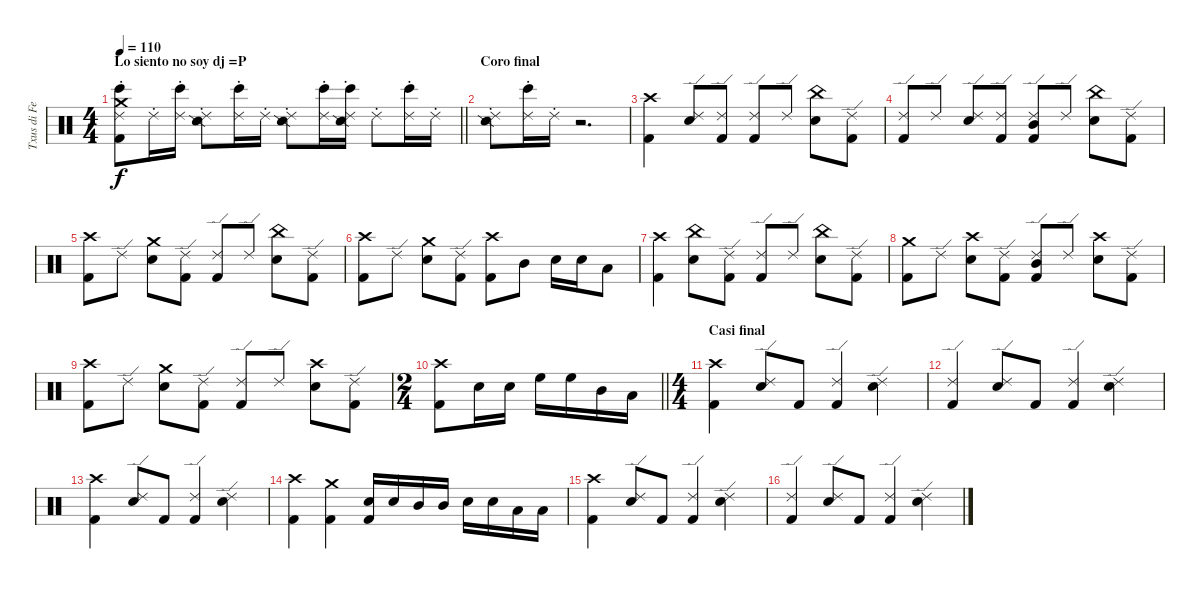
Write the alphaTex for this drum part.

\track ("Txus di Fellatio" "Txus di Fe") {instrument percussion}
\staff {score}
\articulation defaults
\ts (4 4)
\section ("" "Lo siento no soy dj =P")
\tempo 110
\clef neutral
\barLineRight lightlight
\ks c
("Ride (choke) 2" "Bongo High (hit)" "Crash medium (hit)" "Kick (hit) 2").8{dy f} "Ride (choke) 2".16 ("Ride (choke) 2" "Bongo High (hit)").16 ("Ride (choke) 2" "Snare (side stick) 2").8 ("Ride (choke) 2" "Bongo High (hit)").16 "Ride (choke) 2".16 ("Ride (choke) 2" "Snare (side stick) 2").8 ("Ride (choke) 2" "Bongo High (hit)").16 ("Ride (choke) 2" "Bongo High (hit)" "Snare (side stick) 2").16 "Ride (choke) 2".8 ("Ride (choke) 2" "Bongo High (hit)").16 "Ride (choke) 2".16 |
\section ("" "Coro final")
("Ride (choke) 2" "Snare (side stick) 2").8 ("Ride (choke) 2" "Bongo High (hit)").16 "Ride (choke) 2".16 r.2{d} |
("Kick (hit) 2" "Crash high (hit)").4 ("Ride (edge) 2" "Electric Snare (hit)").8 ("Kick (hit) 2" "Ride (edge) 2").8 ("Kick (hit) 2" "Ride (edge) 2").8 "Ride (edge) 2".8 ("China (hit)" "Electric Snare (hit)").8 ("Kick (hit) 2" "Ride (edge) 2").8 |
("Kick (hit) 2" "Ride (edge) 2").8 "Ride (edge) 2".8 ("Ride (edge) 2" "Electric Snare (hit)").8 ("Kick (hit) 2" "Ride (edge) 2").8 ("Kick (hit) 2" "Ride (edge) 2" "Mid Tom (hit)").8 "Ride (edge) 2".8 ("China (hit)" "Electric Snare (hit)").8 ("Kick (hit) 2" "Ride (edge) 2").8 |
("Kick (hit) 2" "Crash high (hit)").8 "Ride (edge) 2".8 ("Crash medium (hit)" "Electric Snare (hit)").8 ("Kick (hit) 2" "Ride (edge) 2").8 ("Kick (hit) 2" "Ride (edge) 2").8 "Ride (edge) 2".8 ("China (hit)" "Electric Snare (hit)").8 ("Kick (hit) 2" "Ride (edge) 2").8 |
("Kick (hit) 2" "Crash high (hit)").8 "Ride (edge) 2".8 ("Crash medium (hit)" "Electric Snare (hit)").8 ("Kick (hit) 2" "Ride (edge) 2").8 ("Kick (hit) 2" "Crash high (hit)").8 "Mid Tom (hit)".8 "Electric Snare (hit)".16 "Electric Snare (hit)".16 "Low Tom (hit)".8 |
("Kick (hit) 2" "Crash high (hit)").4 ("China (hit)" "Electric Snare (hit)").8 ("Kick (hit) 2" "Ride (edge) 2").8 ("Kick (hit) 2" "Ride (edge) 2").8 "Ride (edge) 2".8 ("China (hit)" "Electric Snare (hit)").8 ("Kick (hit) 2" "Ride (edge) 2").8 |
("Kick (hit) 2" "Crash medium (hit)").8 "Ride (edge) 2".8 ("Crash high (hit)" "Electric Snare (hit)").8 ("Kick (hit) 2" "Ride (edge) 2").8 ("Kick (hit) 2" "Ride (edge) 2" "Mid Tom (hit)").8 "Ride (edge) 2".8 ("Crash high (hit)" "Electric Snare (hit)").8 ("Kick (hit) 2" "Ride (edge) 2").8 |
("Kick (hit) 2" "Crash high (hit)").8 "Ride (edge) 2".8 ("Crash medium (hit)" "Electric Snare (hit)").8 ("Kick (hit) 2" "Ride (edge) 2").8 ("Kick (hit) 2" "Ride (edge) 2").8 "Ride (edge) 2".8 ("Crash high (hit)" "Electric Snare (hit)").8 ("Kick (hit) 2" "Ride (edge) 2").8 |
\ts (2 4)
\barLineRight lightlight
("Kick (hit) 2" "Crash high (hit)").8 "Electric Snare (hit)".16 "Electric Snare (hit)".16 "High Floor Tom (hit)".16 "High Floor Tom (hit)".16 "Mid Tom (hit)".16 "Low Tom (hit)".16 |
\ts (4 4)
\section ("" "Casi final")
("Kick (hit) 2" "Crash high (hit)").4 ("Ride (edge) 2" "Electric Snare (hit)").8 "Kick (hit) 2".8 ("Kick (hit) 2" "Ride (edge) 2").4 ("Ride (edge) 2" "Electric Snare (hit)").4 |
("Kick (hit) 2" "Ride (edge) 2").4 ("Ride (edge) 2" "Electric Snare (hit)").8 "Kick (hit) 2".8 ("Kick (hit) 2" "Ride (edge) 2").4 ("Ride (edge) 2" "Electric Snare (hit)").4 |
("Kick (hit) 2" "Crash high (hit)").4 ("Ride (edge) 2" "Electric Snare (hit)").8 "Kick (hit) 2".8 ("Kick (hit) 2" "Ride (edge) 2").4 ("Ride (edge) 2" "Electric Snare (hit)").4 |
("Kick (hit) 2" "Crash high (hit)").4 ("Kick (hit) 2" "Crash medium (hit)").4 ("Kick (hit) 2" "Electric Snare (hit)").16 "Electric Snare (hit)".16 "Mid Tom (hit)".16 "Mid Tom (hit)".16 "Electric Snare (hit)".16 "Electric Snare (hit)".16 "Low Tom (hit)".16 "Low Tom (hit)".16 |
("Kick (hit) 2" "Crash high (hit)").4 ("Ride (edge) 2" "Electric Snare (hit)").8 "Kick (hit) 2".8 ("Kick (hit) 2" "Ride (edge) 2").4 ("Ride (edge) 2" "Electric Snare (hit)").4 |
("Kick (hit) 2" "Ride (edge) 2").4 ("Ride (edge) 2" "Electric Snare (hit)").8 "Kick (hit) 2".8 ("Kick (hit) 2" "Ride (edge) 2").4 ("Ride (edge) 2" "Electric Snare (hit)").4
